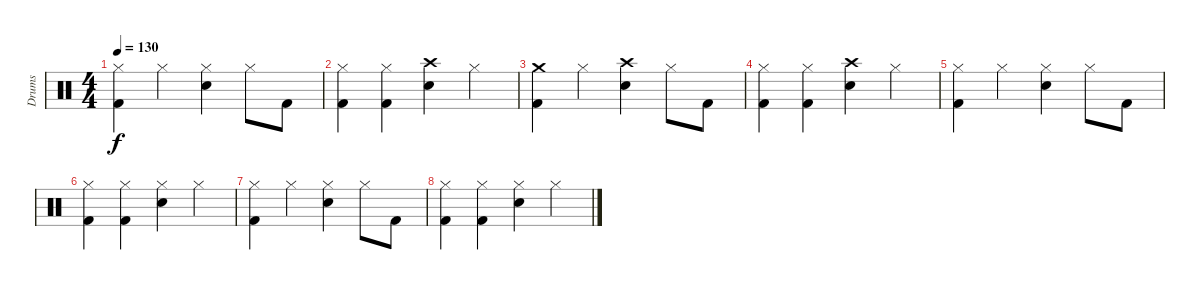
\track ("Drums" "Drums") {instrument percussion}
\staff {score}
\articulation defaults
\ts (4 4)
\tempo 130
\clef neutral
\ks c
("Hi-Hat (closed)" "Kick (hit) 2").4{dy f volume 7} "Hi-Hat (closed)".4 ("Hi-Hat (closed)" "Snare (hit) 2").4 "Hi-Hat (closed)".8 "Kick (hit) 2".8 |
("Hi-Hat (closed)" "Kick (hit) 2").4{volume 6} ("Hi-Hat (closed)" "Kick (hit) 2").4 ("Crash high (hit)" "Snare (hit) 2").4 "Hi-Hat (closed)".4 |
("Crash medium (hit)" "Kick (hit) 2").4{volume 5} "Hi-Hat (closed)".4 ("Crash high (hit)" "Snare (hit) 2").4 "Hi-Hat (closed)".8 "Kick (hit) 2".8 |
("Hi-Hat (closed)" "Kick (hit) 2").4{volume 4} ("Hi-Hat (closed)" "Kick (hit) 2").4 ("Crash high (hit)" "Snare (hit) 2").4 "Hi-Hat (closed)".4 |
("Hi-Hat (closed)" "Kick (hit) 2").4{volume 3} "Hi-Hat (closed)".4 ("Hi-Hat (closed)" "Snare (hit) 2").4 "Hi-Hat (closed)".8 "Kick (hit) 2".8 |
("Hi-Hat (closed)" "Kick (hit) 2").4{volume 2} ("Hi-Hat (closed)" "Kick (hit) 2").4 ("Hi-Hat (closed)" "Snare (hit) 2").4 "Hi-Hat (closed)".4 |
("Hi-Hat (closed)" "Kick (hit) 2").4{volume 1} "Hi-Hat (closed)".4 ("Hi-Hat (closed)" "Snare (hit) 2").4 "Hi-Hat (closed)".8 "Kick (hit) 2".8 |
("Hi-Hat (closed)" "Kick (hit) 2").4{volume 0} ("Hi-Hat (closed)" "Kick (hit) 2").4 ("Hi-Hat (closed)" "Snare (hit) 2").4 "Hi-Hat (closed)".4
